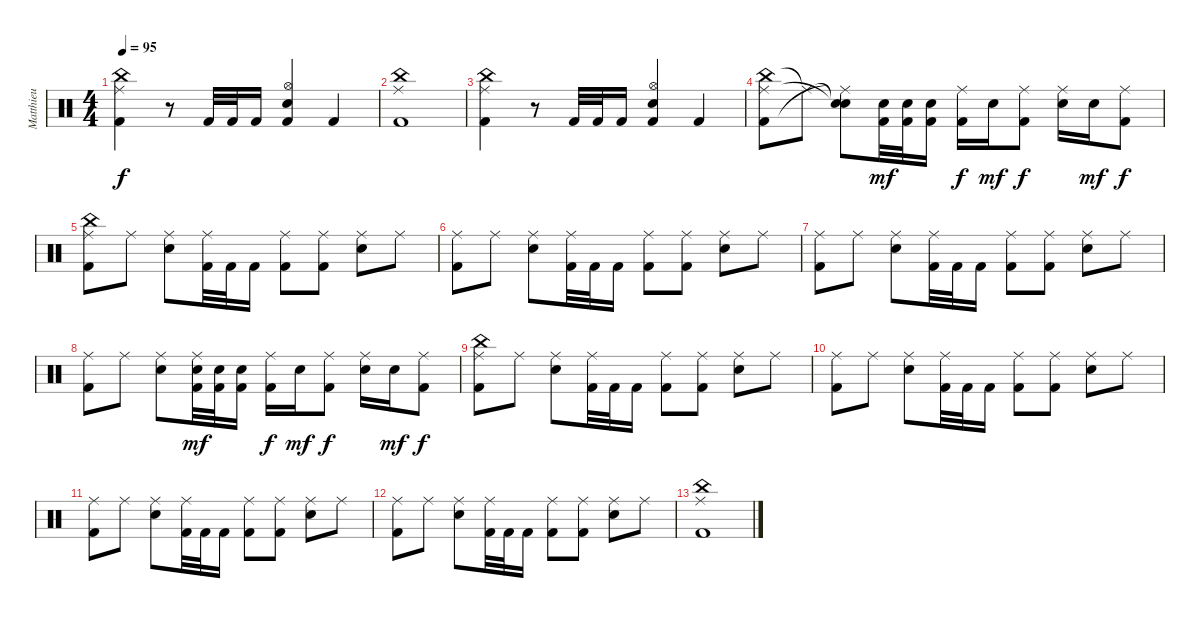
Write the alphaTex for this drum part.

\track ("Matthieu" "Matthieu") {instrument percussion}
\staff {score}
\articulation defaults
\ts (4 4)
\tempo 95
\clef neutral
\ks c
("China (hit)" "Ride (middle)" "Kick (hit) 2").4{dy f} r.8 "Kick (hit) 2".32 "Kick (hit) 2".32 "Kick (hit) 2".16 ("Hi-Hat (open)" "Snare (hit) 2" "Kick (hit) 2").4 "Kick (hit) 2".4 |
("China (hit)" "Ride (middle)" "Kick (hit) 2").1 |
("China (hit)" "Ride (middle)" "Kick (hit) 2").4 r.8 "Kick (hit) 2".32 "Kick (hit) 2".32 "Kick (hit) 2".16 ("Hi-Hat (open)" "Snare (hit) 2" "Kick (hit) 2").4 "Kick (hit) 2".4 |
("China (hit)" "Ride (middle)" "Kick (hit) 2").8 "Ride (middle)"{t}.8 ("Snare (hit)"{t} "Snare (hit)"{t} "Ride (middle)"{t}).8 ("Electric Snare (hit)" "Kick (hit) 2").32{dy mf} ("Electric Snare (hit)" "Kick (hit) 2").32 ("Electric Snare (hit)" "Kick (hit) 2").16 ("Ride (middle)" "Kick (hit) 2").16{dy f} "Electric Snare (hit)".16{dy mf} ("Ride (middle)" "Kick (hit) 2").8{dy f} ("Ride (middle)" "Snare (hit) 2").16 "Electric Snare (hit)".16{dy mf} ("Ride (middle)" "Kick (hit) 2").8{dy f} |
("China (hit)" "Ride (middle)" "Kick (hit) 2").8 "Ride (middle)".8 ("Ride (middle)" "Snare (hit) 2").8 ("Ride (middle)" "Kick (hit) 2").32 "Kick (hit) 2".32 "Kick (hit) 2".16 ("Ride (middle)" "Kick (hit) 2").8 ("Ride (middle)" "Kick (hit) 2").8 ("Ride (middle)" "Snare (hit) 2").8 "Ride (middle)".8 |
("Ride (middle)" "Kick (hit) 2").8 "Ride (middle)".8 ("Ride (middle)" "Snare (hit) 2").8 ("Ride (middle)" "Kick (hit) 2").32 "Kick (hit) 2".32 "Kick (hit) 2".16 ("Ride (middle)" "Kick (hit) 2").8 ("Ride (middle)" "Kick (hit) 2").8 ("Ride (middle)" "Snare (hit) 2").8 "Ride (middle)".8 |
("Ride (middle)" "Kick (hit) 2").8 "Ride (middle)".8 ("Ride (middle)" "Snare (hit) 2").8 ("Ride (middle)" "Kick (hit) 2").32 "Kick (hit) 2".32 "Kick (hit) 2".16 ("Ride (middle)" "Kick (hit) 2").8 ("Ride (middle)" "Kick (hit) 2").8 ("Ride (middle)" "Snare (hit) 2").8 "Ride (middle)".8 |
("Ride (middle)" "Kick (hit) 2").8 "Ride (middle)".8 ("Ride (middle)" "Snare (hit) 2").8 ("Ride (middle)" "Electric Snare (hit)" "Kick (hit) 2").32{dy mf} ("Electric Snare (hit)" "Kick (hit) 2").32 ("Electric Snare (hit)" "Kick (hit) 2").16 ("Ride (middle)" "Kick (hit) 2").16{dy f} "Electric Snare (hit)".16{dy mf} ("Ride (middle)" "Kick (hit) 2").8{dy f} ("Ride (middle)" "Snare (hit) 2").16 "Electric Snare (hit)".16{dy mf} ("Ride (middle)" "Kick (hit) 2").8{dy f} |
("China (hit)" "Ride (middle)" "Kick (hit) 2").8 "Ride (middle)".8 ("Ride (middle)" "Snare (hit) 2").8 ("Ride (middle)" "Kick (hit) 2").32 "Kick (hit) 2".32 "Kick (hit) 2".16 ("Ride (middle)" "Kick (hit) 2").8 ("Ride (middle)" "Kick (hit) 2").8 ("Ride (middle)" "Snare (hit) 2").8 "Ride (middle)".8 |
("Ride (middle)" "Kick (hit) 2").8 "Ride (middle)".8 ("Ride (middle)" "Snare (hit) 2").8 ("Ride (middle)" "Kick (hit) 2").32 "Kick (hit) 2".32 "Kick (hit) 2".16 ("Ride (middle)" "Kick (hit) 2").8 ("Ride (middle)" "Kick (hit) 2").8 ("Ride (middle)" "Snare (hit) 2").8 "Ride (middle)".8 |
("Ride (middle)" "Kick (hit) 2").8 "Ride (middle)".8 ("Ride (middle)" "Snare (hit) 2").8 ("Ride (middle)" "Kick (hit) 2").32 "Kick (hit) 2".32 "Kick (hit) 2".16 ("Ride (middle)" "Kick (hit) 2").8 ("Ride (middle)" "Kick (hit) 2").8 ("Ride (middle)" "Snare (hit) 2").8 "Ride (middle)".8 |
("Ride (middle)" "Kick (hit) 2").8 "Ride (middle)".8 ("Ride (middle)" "Snare (hit) 2").8 ("Ride (middle)" "Kick (hit) 2").32 "Kick (hit) 2".32 "Kick (hit) 2".16 ("Ride (middle)" "Kick (hit) 2").8 ("Ride (middle)" "Kick (hit) 2").8 ("Ride (middle)" "Snare (hit) 2").8 "Ride (middle)".8 |
("Ride (middle)" "China (hit)" "Kick (hit) 2").1
